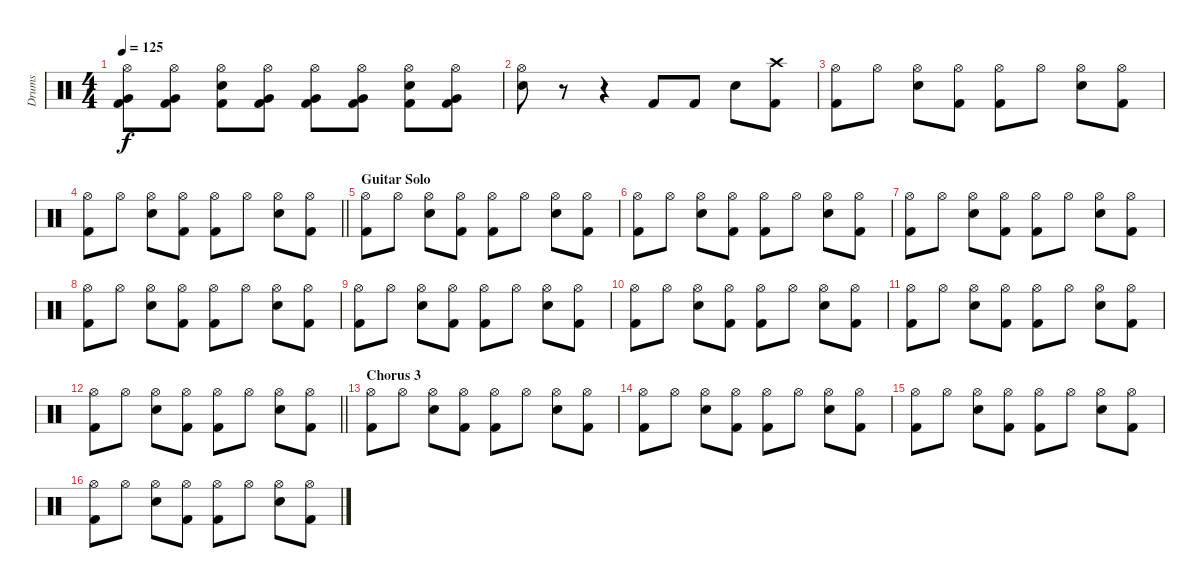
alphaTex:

\track ("Drums" "Drums") {instrument percussion}
\staff {score}
\articulation defaults
\ts (4 4)
\tempo 125
\clef neutral
\ks c
("Very Low Tom (hit)" "Kick (hit) 2" "Hi-Hat (open)").8{dy f} ("Very Low Tom (hit)" "Kick (hit) 2" "Hi-Hat (open)").8 ("Electric Snare (hit)" "Kick (hit) 2" "Hi-Hat (open)").8 ("Very Low Tom (hit)" "Kick (hit) 2" "Hi-Hat (open)").8 ("Very Low Tom (hit)" "Kick (hit) 2" "Hi-Hat (open)").8 ("Very Low Tom (hit)" "Kick (hit) 2" "Hi-Hat (open)").8 ("Electric Snare (hit)" "Kick (hit) 2" "Hi-Hat (open)").8 ("Very Low Tom (hit)" "Kick (hit) 2" "Hi-Hat (open)").8 |
("Electric Snare (hit)" "Hi-Hat (open)").8 r.8 r.4 "Kick (hit) 2".8 "Kick (hit) 2".8 "Electric Snare (hit)".8 ("Kick (hit) 2" "Crash high (hit)").8 |
("Kick (hit) 2" "Hi-Hat (open)").8 "Hi-Hat (open)".8 ("Electric Snare (hit)" "Hi-Hat (open)").8 ("Kick (hit) 2" "Hi-Hat (open)").8 ("Kick (hit) 2" "Hi-Hat (open)").8 "Hi-Hat (open)".8 ("Electric Snare (hit)" "Hi-Hat (open)").8 ("Kick (hit) 2" "Hi-Hat (open)").8 |
\barLineRight lightlight
("Kick (hit) 2" "Hi-Hat (open)").8 "Hi-Hat (open)".8 ("Electric Snare (hit)" "Hi-Hat (open)").8 ("Kick (hit) 2" "Hi-Hat (open)").8 ("Kick (hit) 2" "Hi-Hat (open)").8 "Hi-Hat (open)".8 ("Electric Snare (hit)" "Hi-Hat (open)").8 ("Kick (hit) 2" "Hi-Hat (open)").8 |
\section ("" "Guitar Solo")
("Kick (hit) 2" "Hi-Hat (open)").8 "Hi-Hat (open)".8 ("Electric Snare (hit)" "Hi-Hat (open)").8 ("Kick (hit) 2" "Hi-Hat (open)").8 ("Kick (hit) 2" "Hi-Hat (open)").8 "Hi-Hat (open)".8 ("Electric Snare (hit)" "Hi-Hat (open)").8 ("Kick (hit) 2" "Hi-Hat (open)").8 |
("Kick (hit) 2" "Hi-Hat (open)").8 "Hi-Hat (open)".8 ("Electric Snare (hit)" "Hi-Hat (open)").8 ("Kick (hit) 2" "Hi-Hat (open)").8 ("Kick (hit) 2" "Hi-Hat (open)").8 "Hi-Hat (open)".8 ("Electric Snare (hit)" "Hi-Hat (open)").8 ("Kick (hit) 2" "Hi-Hat (open)").8 |
("Kick (hit) 2" "Hi-Hat (open)").8 "Hi-Hat (open)".8 ("Electric Snare (hit)" "Hi-Hat (open)").8 ("Kick (hit) 2" "Hi-Hat (open)").8 ("Kick (hit) 2" "Hi-Hat (open)").8 "Hi-Hat (open)".8 ("Electric Snare (hit)" "Hi-Hat (open)").8 ("Kick (hit) 2" "Hi-Hat (open)").8 |
("Kick (hit) 2" "Hi-Hat (open)").8 "Hi-Hat (open)".8 ("Electric Snare (hit)" "Hi-Hat (open)").8 ("Kick (hit) 2" "Hi-Hat (open)").8 ("Kick (hit) 2" "Hi-Hat (open)").8 "Hi-Hat (open)".8 ("Electric Snare (hit)" "Hi-Hat (open)").8 ("Kick (hit) 2" "Hi-Hat (open)").8 |
("Kick (hit) 2" "Hi-Hat (open)").8 "Hi-Hat (open)".8 ("Electric Snare (hit)" "Hi-Hat (open)").8 ("Kick (hit) 2" "Hi-Hat (open)").8 ("Kick (hit) 2" "Hi-Hat (open)").8 "Hi-Hat (open)".8 ("Electric Snare (hit)" "Hi-Hat (open)").8 ("Kick (hit) 2" "Hi-Hat (open)").8 |
("Kick (hit) 2" "Hi-Hat (open)").8 "Hi-Hat (open)".8 ("Electric Snare (hit)" "Hi-Hat (open)").8 ("Kick (hit) 2" "Hi-Hat (open)").8 ("Kick (hit) 2" "Hi-Hat (open)").8 "Hi-Hat (open)".8 ("Electric Snare (hit)" "Hi-Hat (open)").8 ("Kick (hit) 2" "Hi-Hat (open)").8 |
("Kick (hit) 2" "Hi-Hat (open)").8 "Hi-Hat (open)".8 ("Electric Snare (hit)" "Hi-Hat (open)").8 ("Kick (hit) 2" "Hi-Hat (open)").8 ("Kick (hit) 2" "Hi-Hat (open)").8 "Hi-Hat (open)".8 ("Electric Snare (hit)" "Hi-Hat (open)").8 ("Kick (hit) 2" "Hi-Hat (open)").8 |
\barLineRight lightlight
("Kick (hit) 2" "Hi-Hat (open)").8 "Hi-Hat (open)".8 ("Electric Snare (hit)" "Hi-Hat (open)").8 ("Kick (hit) 2" "Hi-Hat (open)").8 ("Kick (hit) 2" "Hi-Hat (open)").8 "Hi-Hat (open)".8 ("Electric Snare (hit)" "Hi-Hat (open)").8 ("Kick (hit) 2" "Hi-Hat (open)").8 |
\section ("" "Chorus 3")
("Kick (hit) 2" "Hi-Hat (open)").8 "Hi-Hat (open)".8 ("Electric Snare (hit)" "Hi-Hat (open)").8 ("Kick (hit) 2" "Hi-Hat (open)").8 ("Kick (hit) 2" "Hi-Hat (open)").8 "Hi-Hat (open)".8 ("Electric Snare (hit)" "Hi-Hat (open)").8 ("Kick (hit) 2" "Hi-Hat (open)").8 |
("Kick (hit) 2" "Hi-Hat (open)").8 "Hi-Hat (open)".8 ("Electric Snare (hit)" "Hi-Hat (open)").8 ("Kick (hit) 2" "Hi-Hat (open)").8 ("Kick (hit) 2" "Hi-Hat (open)").8 "Hi-Hat (open)".8 ("Electric Snare (hit)" "Hi-Hat (open)").8 ("Kick (hit) 2" "Hi-Hat (open)").8 |
("Kick (hit) 2" "Hi-Hat (open)").8 "Hi-Hat (open)".8 ("Electric Snare (hit)" "Hi-Hat (open)").8 ("Kick (hit) 2" "Hi-Hat (open)").8 ("Kick (hit) 2" "Hi-Hat (open)").8 "Hi-Hat (open)".8 ("Electric Snare (hit)" "Hi-Hat (open)").8 ("Kick (hit) 2" "Hi-Hat (open)").8 |
("Kick (hit) 2" "Hi-Hat (open)").8 "Hi-Hat (open)".8 ("Electric Snare (hit)" "Hi-Hat (open)").8 ("Kick (hit) 2" "Hi-Hat (open)").8 ("Kick (hit) 2" "Hi-Hat (open)").8 "Hi-Hat (open)".8 ("Electric Snare (hit)" "Hi-Hat (open)").8 ("Kick (hit) 2" "Hi-Hat (open)").8
